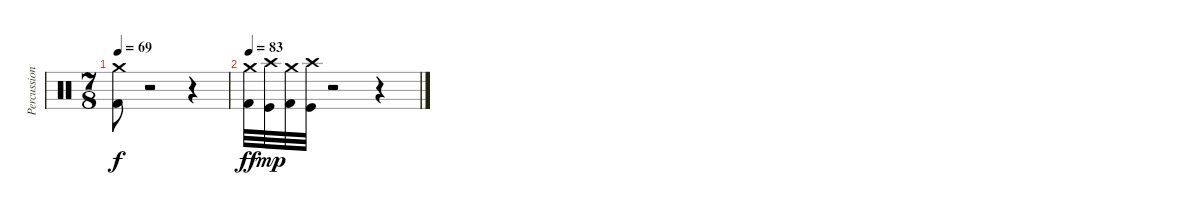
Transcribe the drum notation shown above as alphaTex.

\track ("Percussion" "Percussion") {instrument percussion}
\staff {score}
\articulation defaults
\ts (7 8)
\tempo 69
\clef neutral
\ks c
("Crash medium (hit)" "Kick (hit) 2").8{dy f volume 16} r.2 r.4 |
\tempo 83
("Crash medium (hit)" "Kick (hit) 2").32{dy ff} ("Crash high (hit)" "Kick (hit)").32{dy mp} ("Crash medium (hit)" "Kick (hit) 2").32 ("Crash high (hit)" "Kick (hit)").32 r.2 r.4
